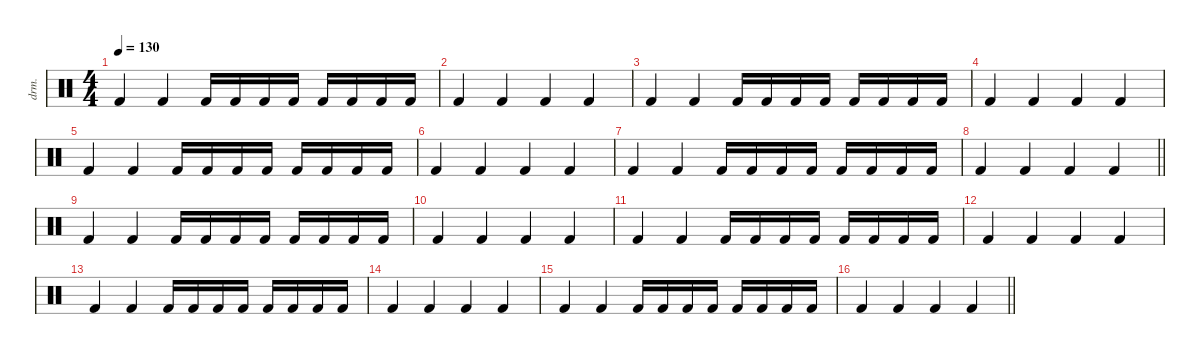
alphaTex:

\defaultSystemsLayout 4
\hideDynamics
\bracketExtendMode nobrackets
\otherSystemsTrackNameOrientation horizontal
\track ("Percussion" "drm.") {defaultSystemsLayout 4 instrument percussion}
\staff {score}
\articulation defaults
\ts (4 4)
\beaming (8 2 2 2 2)
\tempo 130
\clef neutral
\ks c "Kick (hit) 2".4{dy f beam Up} "Kick (hit) 2".4{beam Up} "Kick (hit) 2".16{beam Up} "Kick (hit) 2".16{beam Up} "Kick (hit) 2".16{beam Up} "Kick (hit) 2".16{beam Up} "Kick (hit) 2".16{beam Up} "Kick (hit) 2".16{beam Up} "Kick (hit) 2".16{beam Up} "Kick (hit) 2".16{beam Up}
|
"Kick (hit) 2".4{beam Up} "Kick (hit) 2".4{beam Up} "Kick (hit) 2".4{beam Up} "Kick (hit) 2".4{beam Up} |
"Kick (hit) 2".4{beam Up} "Kick (hit) 2".4{beam Up} "Kick (hit) 2".16{beam Up} "Kick (hit) 2".16{beam Up} "Kick (hit) 2".16{beam Up} "Kick (hit) 2".16{beam Up} "Kick (hit) 2".16{beam Up} "Kick (hit) 2".16{beam Up} "Kick (hit) 2".16{beam Up} "Kick (hit) 2".16{beam Up} |
"Kick (hit) 2".4{beam Up} "Kick (hit) 2".4{beam Up} "Kick (hit) 2".4{beam Up} "Kick (hit) 2".4{beam Up} |
"Kick (hit) 2".4{beam Up} "Kick (hit) 2".4{beam Up} "Kick (hit) 2".16{beam Up} "Kick (hit) 2".16{beam Up} "Kick (hit) 2".16{beam Up} "Kick (hit) 2".16{beam Up} "Kick (hit) 2".16{beam Up} "Kick (hit) 2".16{beam Up} "Kick (hit) 2".16{beam Up} "Kick (hit) 2".16{beam Up} |
"Kick (hit) 2".4{beam Up} "Kick (hit) 2".4{beam Up} "Kick (hit) 2".4{beam Up} "Kick (hit) 2".4{beam Up} |
"Kick (hit) 2".4{beam Up} "Kick (hit) 2".4{beam Up} "Kick (hit) 2".16{beam Up} "Kick (hit) 2".16{beam Up} "Kick (hit) 2".16{beam Up} "Kick (hit) 2".16{beam Up} "Kick (hit) 2".16{beam Up} "Kick (hit) 2".16{beam Up} "Kick (hit) 2".16{beam Up} "Kick (hit) 2".16{beam Up} |
\barLineRight lightlight "Kick (hit) 2".4{beam Up} "Kick (hit) 2".4{beam Up} "Kick (hit) 2".4{beam Up} "Kick (hit) 2".4{beam Up}
|
"Kick (hit) 2".4{beam Up} "Kick (hit) 2".4{beam Up} "Kick (hit) 2".16{beam Up} "Kick (hit) 2".16{beam Up} "Kick (hit) 2".16{beam Up} "Kick (hit) 2".16{beam Up} "Kick (hit) 2".16{beam Up} "Kick (hit) 2".16{beam Up} "Kick (hit) 2".16{beam Up} "Kick (hit) 2".16{beam Up} |
"Kick (hit) 2".4{beam Up} "Kick (hit) 2".4{beam Up} "Kick (hit) 2".4{beam Up} "Kick (hit) 2".4{beam Up} |
"Kick (hit) 2".4{beam Up} "Kick (hit) 2".4{beam Up} "Kick (hit) 2".16{beam Up} "Kick (hit) 2".16{beam Up} "Kick (hit) 2".16{beam Up} "Kick (hit) 2".16{beam Up} "Kick (hit) 2".16{beam Up} "Kick (hit) 2".16{beam Up} "Kick (hit) 2".16{beam Up} "Kick (hit) 2".16{beam Up} |
"Kick (hit) 2".4{beam Up} "Kick (hit) 2".4{beam Up} "Kick (hit) 2".4{beam Up} "Kick (hit) 2".4{beam Up} |
"Kick (hit) 2".4{beam Up} "Kick (hit) 2".4{beam Up} "Kick (hit) 2".16{beam Up} "Kick (hit) 2".16{beam Up} "Kick (hit) 2".16{beam Up} "Kick (hit) 2".16{beam Up} "Kick (hit) 2".16{beam Up} "Kick (hit) 2".16{beam Up} "Kick (hit) 2".16{beam Up} "Kick (hit) 2".16{beam Up} |
"Kick (hit) 2".4{beam Up} "Kick (hit) 2".4{beam Up} "Kick (hit) 2".4{beam Up} "Kick (hit) 2".4{beam Up} |
"Kick (hit) 2".4{beam Up} "Kick (hit) 2".4{beam Up} "Kick (hit) 2".16{beam Up} "Kick (hit) 2".16{beam Up} "Kick (hit) 2".16{beam Up} "Kick (hit) 2".16{beam Up} "Kick (hit) 2".16{beam Up} "Kick (hit) 2".16{beam Up} "Kick (hit) 2".16{beam Up} "Kick (hit) 2".16{beam Up} |
\barLineRight lightlight "Kick (hit) 2".4{beam Up} "Kick (hit) 2".4{beam Up} "Kick (hit) 2".4{beam Up} "Kick (hit) 2".4{beam Up}
